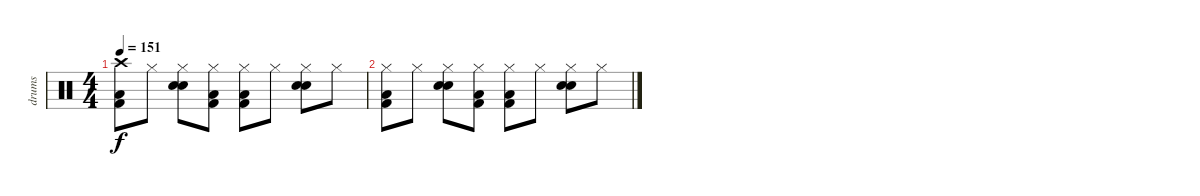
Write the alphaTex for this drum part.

\track ("drums" "drums") {instrument percussion}
\staff {score}
\articulation defaults
\ts (4 4)
\tempo 151
\clef neutral
\ks c
("Crash high (hit)" "Low Floor Tom (hit)" "Kick (hit) 2").8{dy f} "Hi-Hat (closed)".8 ("Hi-Hat (closed)" "Snare (hit) 2" "Snare (hit) 2").8 ("Hi-Hat (closed)" "Low Floor Tom (hit)" "Kick (hit) 2").8 ("Hi-Hat (closed)" "Low Floor Tom (hit)" "Kick (hit) 2").8 "Hi-Hat (closed)".8 ("Hi-Hat (closed)" "Snare (hit) 2" "Snare (hit) 2").8 "Hi-Hat (closed)".8 |
("Hi-Hat (closed)" "Low Floor Tom (hit)" "Kick (hit) 2").8 "Hi-Hat (closed)".8 ("Hi-Hat (closed)" "Snare (hit) 2" "Snare (hit) 2").8 ("Hi-Hat (closed)" "Low Floor Tom (hit)" "Kick (hit) 2").8 ("Hi-Hat (closed)" "Low Floor Tom (hit)" "Kick (hit) 2").8 "Hi-Hat (closed)".8 ("Hi-Hat (closed)" "Snare (hit) 2" "Snare (hit) 2").8 "Hi-Hat (closed)".8
